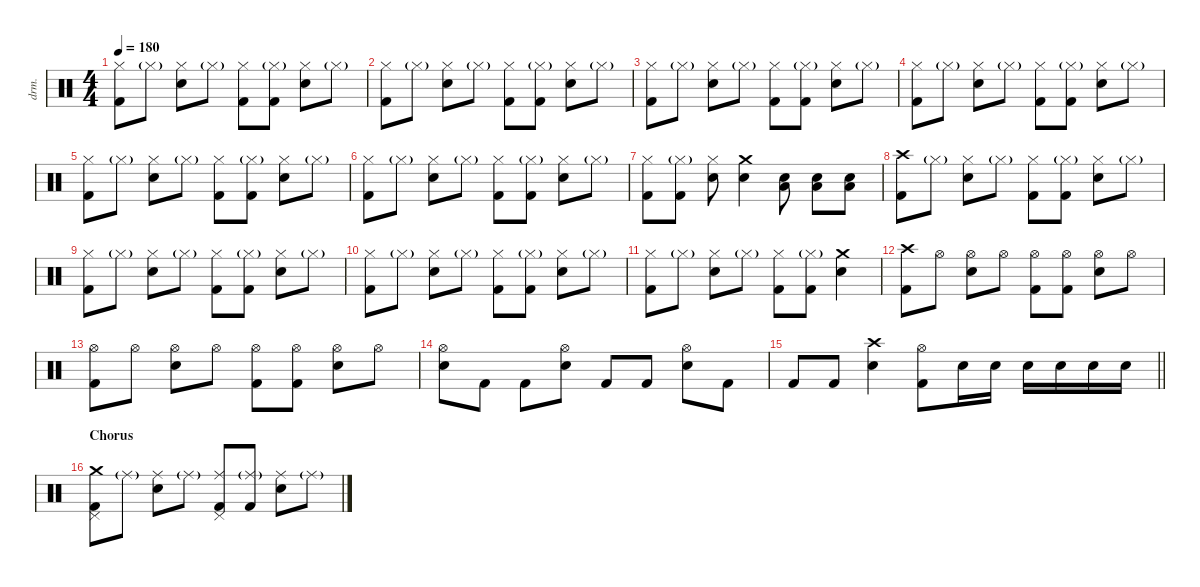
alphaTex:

\defaultSystemsLayout 4
\hideDynamics
\bracketExtendMode nobrackets
\otherSystemsTrackNameOrientation horizontal
\track ("Drums: Ritsu Tainaka" "drm.") {instrument percussion}
\staff {score}
\articulation defaults
\ts (4 4)
\tempo 180
\clef neutral
\ks c
("Hi-Hat (closed)" "Kick (hit) 2").8{dy f beam Down} "Hi-Hat (closed)"{g}.8{dy mf beam Down} ("Hi-Hat (closed)" "Snare (hit) 2").8{dy f beam Down} "Hi-Hat (closed)"{g}.8{dy mf beam Down} ("Hi-Hat (closed)" "Kick (hit) 2").8{dy f beam Down} ("Hi-Hat (closed)"{g} "Kick (hit) 2").8{beam Down} ("Hi-Hat (closed)" "Snare (hit) 2").8{beam Down} "Hi-Hat (closed)"{g}.8{dy mf beam Down} |
("Hi-Hat (closed)" "Kick (hit) 2").8{dy f beam Down} "Hi-Hat (closed)"{g}.8{dy mf beam Down} ("Hi-Hat (closed)" "Snare (hit) 2").8{dy f beam Down} "Hi-Hat (closed)"{g}.8{dy mf beam Down} ("Hi-Hat (closed)" "Kick (hit) 2").8{dy f beam Down} ("Hi-Hat (closed)"{g} "Kick (hit) 2").8{beam Down} ("Hi-Hat (closed)" "Snare (hit) 2").8{beam Down} "Hi-Hat (closed)"{g}.8{dy mf beam Down} |
("Hi-Hat (closed)" "Kick (hit) 2").8{dy f beam Down} "Hi-Hat (closed)"{g}.8{dy mf beam Down} ("Hi-Hat (closed)" "Snare (hit) 2").8{dy f beam Down} "Hi-Hat (closed)"{g}.8{dy mf beam Down} ("Hi-Hat (closed)" "Kick (hit) 2").8{dy f beam Down} ("Hi-Hat (closed)"{g} "Kick (hit) 2").8{beam Down} ("Hi-Hat (closed)" "Snare (hit) 2").8{beam Down} "Hi-Hat (closed)"{g}.8{dy mf beam Down} |
("Hi-Hat (closed)" "Kick (hit) 2").8{dy f beam Down} "Hi-Hat (closed)"{g}.8{dy mf beam Down} ("Hi-Hat (closed)" "Snare (hit) 2").8{dy f beam Down} "Hi-Hat (closed)"{g}.8{dy mf beam Down} ("Hi-Hat (closed)" "Kick (hit) 2").8{dy f beam Down} ("Hi-Hat (closed)"{g} "Kick (hit) 2").8{beam Down} ("Hi-Hat (closed)" "Snare (hit) 2").8{beam Down} "Hi-Hat (closed)"{g}.8{dy mf beam Down} |
("Hi-Hat (closed)" "Kick (hit) 2").8{dy f beam Down} "Hi-Hat (closed)"{g}.8{dy mf beam Down} ("Hi-Hat (closed)" "Snare (hit) 2").8{dy f beam Down} "Hi-Hat (closed)"{g}.8{dy mf beam Down} ("Hi-Hat (closed)" "Kick (hit) 2").8{dy f beam Down} ("Hi-Hat (closed)"{g} "Kick (hit) 2").8{beam Down} ("Hi-Hat (closed)" "Snare (hit) 2").8{beam Down} "Hi-Hat (closed)"{g}.8{dy mf beam Down} |
("Hi-Hat (closed)" "Kick (hit) 2").8{dy f beam Down} "Hi-Hat (closed)"{g}.8{dy mf beam Down} ("Hi-Hat (closed)" "Snare (hit) 2").8{dy f beam Down} "Hi-Hat (closed)"{g}.8{dy mf beam Down} ("Hi-Hat (closed)" "Kick (hit) 2").8{dy f beam Down} ("Hi-Hat (closed)"{g} "Kick (hit) 2").8{beam Down} ("Hi-Hat (closed)" "Snare (hit) 2").8{beam Down} "Hi-Hat (closed)"{g}.8{dy mf beam Down} |
("Hi-Hat (closed)" "Kick (hit) 2").8{dy f beam Down} ("Hi-Hat (closed)"{g} "Kick (hit) 2").8{beam Down} ("Hi-Hat (closed)" "Snare (hit) 2").8{beam Down} ("Crash medium (hit)" "Snare (hit) 2").4{beam Down} ("Snare (hit) 2" "Low Floor Tom (hit)").8{dy mp beam Down} ("Snare (hit) 2" "Low Floor Tom (hit)").8{dy mf beam Down} ("Snare (hit) 2" "Low Floor Tom (hit)").8{dy f beam Down} |
("Crash high (hit)" "Kick (hit) 2").8{beam Down} "Hi-Hat (closed)"{g}.8{dy mf beam Down} ("Hi-Hat (closed)" "Snare (hit) 2").8{dy f beam Down} "Hi-Hat (closed)"{g}.8{dy mf beam Down} ("Hi-Hat (closed)" "Kick (hit) 2").8{dy f beam Down} ("Hi-Hat (closed)"{g} "Kick (hit) 2").8{beam Down} ("Hi-Hat (closed)" "Snare (hit) 2").8{beam Down} "Hi-Hat (closed)"{g}.8{dy mf beam Down} |
("Hi-Hat (closed)" "Kick (hit) 2").8{dy f beam Down} "Hi-Hat (closed)"{g}.8{dy mf beam Down} ("Hi-Hat (closed)" "Snare (hit) 2").8{dy f beam Down} "Hi-Hat (closed)"{g}.8{dy mf beam Down} ("Hi-Hat (closed)" "Kick (hit) 2").8{dy f beam Down} ("Hi-Hat (closed)"{g} "Kick (hit) 2").8{beam Down} ("Hi-Hat (closed)" "Snare (hit) 2").8{beam Down} "Hi-Hat (closed)"{g}.8{dy mf beam Down} |
("Hi-Hat (closed)" "Kick (hit) 2").8{dy f beam Down} "Hi-Hat (closed)"{g}.8{dy mf beam Down} ("Hi-Hat (closed)" "Snare (hit) 2").8{dy f beam Down} "Hi-Hat (closed)"{g}.8{dy mf beam Down} ("Hi-Hat (closed)" "Kick (hit) 2").8{dy f beam Down} ("Hi-Hat (closed)"{g} "Kick (hit) 2").8{beam Down} ("Hi-Hat (closed)" "Snare (hit) 2").8{beam Down} "Hi-Hat (closed)"{g}.8{dy mf beam Down} |
("Hi-Hat (closed)" "Kick (hit) 2").8{dy f beam Down} "Hi-Hat (closed)"{g}.8{dy mf beam Down} ("Hi-Hat (closed)" "Snare (hit) 2").8{dy f beam Down} "Hi-Hat (closed)"{g}.8{dy mf beam Down} ("Hi-Hat (closed)" "Kick (hit) 2").8{dy f beam Down} ("Hi-Hat (closed)"{g} "Kick (hit) 2").8{beam Down} ("Crash medium (hit)" "Snare (hit) 2").4{beam Down} |
("Crash high (hit)" "Kick (hit) 2").8{beam Down} "Hi-Hat (open)".8{beam Down} ("Hi-Hat (open)" "Snare (hit) 2").8{beam Down} "Hi-Hat (open)".8{beam Down} ("Hi-Hat (open)" "Kick (hit) 2").8{beam Down} ("Hi-Hat (open)" "Kick (hit) 2").8{beam Down} ("Hi-Hat (open)" "Snare (hit) 2").8{beam Down} "Hi-Hat (open)".8{beam Down} |
("Hi-Hat (open)" "Kick (hit) 2").8{beam Down} "Hi-Hat (open)".8{beam Down} ("Hi-Hat (open)" "Snare (hit) 2").8{beam Down} "Hi-Hat (open)".8{beam Down} ("Hi-Hat (open)" "Kick (hit) 2").8{beam Down} ("Hi-Hat (open)" "Kick (hit) 2").8{beam Down} ("Hi-Hat (open)" "Snare (hit) 2").8{beam Down} "Hi-Hat (open)".8{beam Down} |
("Hi-Hat (open)" "Snare (hit) 2").8{beam Down} "Kick (hit) 2".8{beam Down} "Kick (hit) 2".8{beam Down} ("Hi-Hat (open)" "Snare (hit) 2").8{beam Down} "Kick (hit) 2".8{beam Up} "Kick (hit) 2".8{beam Up} ("Hi-Hat (open)" "Snare (hit) 2").8{beam Down} "Kick (hit) 2".8{beam Down} |
\barLineRight lightlight "Kick (hit) 2".8{beam Up} "Kick (hit) 2".8{beam Up}
("Crash high (hit)" "Snare (hit) 2").4{beam Down} ("Hi-Hat (open)" "Kick (hit) 2").8{beam Down} "Snare (hit) 2".16{beam Down} "Snare (hit) 2".16{beam Down} "Snare (hit) 2".16{beam Down} "Snare (hit) 2".16{beam Down} "Snare (hit) 2".16{beam Down} "Snare (hit) 2".16{beam Down} |
\section ("" "Chorus")
("Crash medium (hit)" "Pedal Hi-Hat (hit)" "Kick (hit) 2").8{beam Down} "Ride (middle)"{g}.8{dy mf beam Down} ("Ride (middle)" "Snare (hit) 2").8{dy f beam Down} "Ride (middle)"{g}.8{dy mf beam Down} ("Ride (middle)" "Pedal Hi-Hat (hit)" "Kick (hit) 2").8{dy f beam Up} ("Ride (middle)"{g} "Kick (hit) 2").8{beam Up} ("Ride (middle)" "Snare (hit) 2").8{beam Down} "Ride (middle)"{g}.8{dy mf beam Down}
